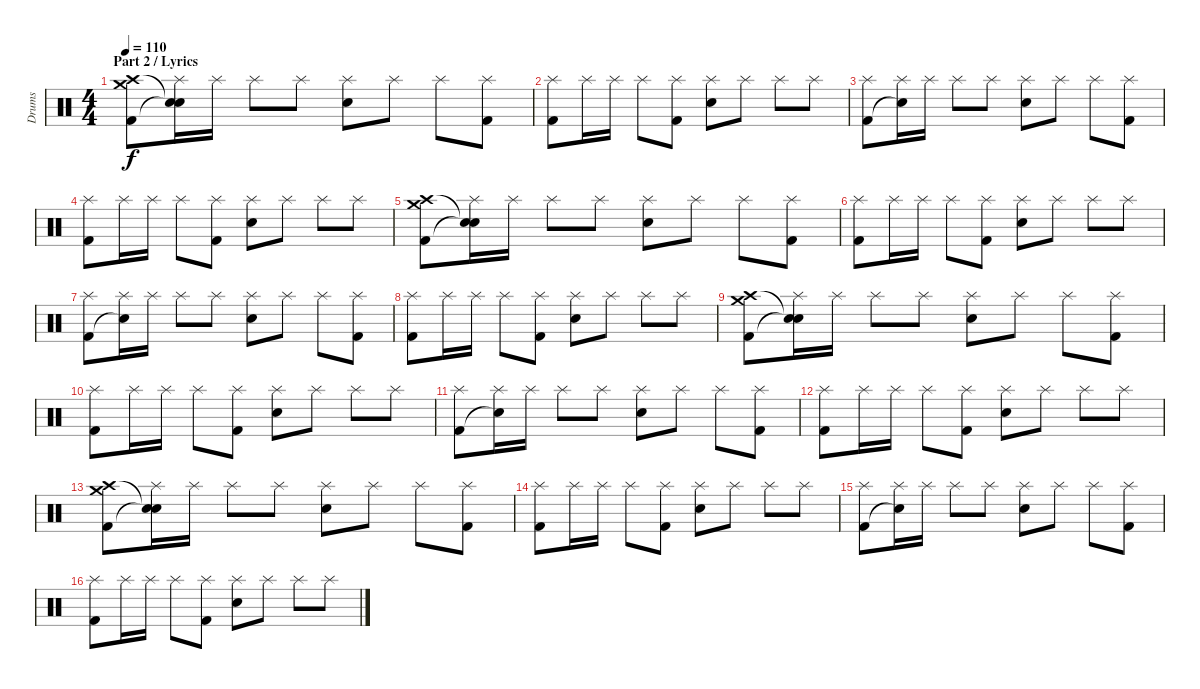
\track ("Drums" "Drums") {instrument percussion}
\staff {score}
\articulation defaults
\ts (4 4)
\section ("" "Part 2 / Lyrics")
\tempo 110
\clef neutral
\ks c
("Crash medium (hit)" "Crash high (hit)" "Kick (hit) 2").8{dy f} ("Splash (hit)" "Snare (hit)"{t} "Snare (hit)"{t}).16 "Splash (hit)".16 "Splash (hit)".8 "Splash (hit)".8 ("Splash (hit)" "Snare (hit) 2").8 "Splash (hit)".8 "Splash (hit)".8 ("Splash (hit)" "Kick (hit) 2").8 |
("Splash (hit)" "Kick (hit) 2").8 "Splash (hit)".16 "Splash (hit)".16 "Splash (hit)".8 ("Splash (hit)" "Kick (hit) 2").8 ("Splash (hit)" "Snare (hit) 2").8 "Splash (hit)".8 "Splash (hit)".8 "Splash (hit)".8 |
("Splash (hit)" "Kick (hit) 2").8 ("Splash (hit)" "Snare (hit)"{t}).16 "Splash (hit)".16 "Splash (hit)".8 "Splash (hit)".8 ("Splash (hit)" "Snare (hit) 2").8 "Splash (hit)".8 "Splash (hit)".8 ("Splash (hit)" "Kick (hit) 2").8 |
("Splash (hit)" "Kick (hit) 2").8 "Splash (hit)".16 "Splash (hit)".16 "Splash (hit)".8 ("Splash (hit)" "Kick (hit) 2").8 ("Splash (hit)" "Snare (hit) 2").8 "Splash (hit)".8 "Splash (hit)".8 "Splash (hit)".8 |
("Crash medium (hit)" "Crash high (hit)" "Kick (hit) 2").8 ("Splash (hit)" "Snare (hit)"{t} "Snare (hit)"{t}).16 "Splash (hit)".16 "Splash (hit)".8 "Splash (hit)".8 ("Splash (hit)" "Snare (hit) 2").8 "Splash (hit)".8 "Splash (hit)".8 ("Splash (hit)" "Kick (hit) 2").8 |
("Splash (hit)" "Kick (hit) 2").8 "Splash (hit)".16 "Splash (hit)".16 "Splash (hit)".8 ("Splash (hit)" "Kick (hit) 2").8 ("Splash (hit)" "Snare (hit) 2").8 "Splash (hit)".8 "Splash (hit)".8 "Splash (hit)".8 |
("Splash (hit)" "Kick (hit) 2").8 ("Splash (hit)" "Snare (hit)"{t}).16 "Splash (hit)".16 "Splash (hit)".8 "Splash (hit)".8 ("Splash (hit)" "Snare (hit) 2").8 "Splash (hit)".8 "Splash (hit)".8 ("Splash (hit)" "Kick (hit) 2").8 |
("Splash (hit)" "Kick (hit) 2").8 "Splash (hit)".16 "Splash (hit)".16 "Splash (hit)".8 ("Splash (hit)" "Kick (hit) 2").8 ("Splash (hit)" "Snare (hit) 2").8 "Splash (hit)".8 "Splash (hit)".8 "Splash (hit)".8 |
("Crash medium (hit)" "Crash high (hit)" "Kick (hit) 2").8 ("Splash (hit)" "Snare (hit)"{t} "Snare (hit)"{t}).16 "Splash (hit)".16 "Splash (hit)".8 "Splash (hit)".8 ("Splash (hit)" "Snare (hit) 2").8 "Splash (hit)".8 "Splash (hit)".8 ("Splash (hit)" "Kick (hit) 2").8 |
("Splash (hit)" "Kick (hit) 2").8 "Splash (hit)".16 "Splash (hit)".16 "Splash (hit)".8 ("Splash (hit)" "Kick (hit) 2").8 ("Splash (hit)" "Snare (hit) 2").8 "Splash (hit)".8 "Splash (hit)".8 "Splash (hit)".8 |
("Splash (hit)" "Kick (hit) 2").8 ("Splash (hit)" "Snare (hit)"{t}).16 "Splash (hit)".16 "Splash (hit)".8 "Splash (hit)".8 ("Splash (hit)" "Snare (hit) 2").8 "Splash (hit)".8 "Splash (hit)".8 ("Splash (hit)" "Kick (hit) 2").8 |
("Splash (hit)" "Kick (hit) 2").8 "Splash (hit)".16 "Splash (hit)".16 "Splash (hit)".8 ("Splash (hit)" "Kick (hit) 2").8 ("Splash (hit)" "Snare (hit) 2").8 "Splash (hit)".8 "Splash (hit)".8 "Splash (hit)".8 |
("Crash medium (hit)" "Crash high (hit)" "Kick (hit) 2").8 ("Splash (hit)" "Snare (hit)"{t} "Snare (hit)"{t}).16 "Splash (hit)".16 "Splash (hit)".8 "Splash (hit)".8 ("Splash (hit)" "Snare (hit) 2").8 "Splash (hit)".8 "Splash (hit)".8 ("Splash (hit)" "Kick (hit) 2").8 |
("Splash (hit)" "Kick (hit) 2").8 "Splash (hit)".16 "Splash (hit)".16 "Splash (hit)".8 ("Splash (hit)" "Kick (hit) 2").8 ("Splash (hit)" "Snare (hit) 2").8 "Splash (hit)".8 "Splash (hit)".8 "Splash (hit)".8 |
("Splash (hit)" "Kick (hit) 2").8 ("Splash (hit)" "Snare (hit)"{t}).16 "Splash (hit)".16 "Splash (hit)".8 "Splash (hit)".8 ("Splash (hit)" "Snare (hit) 2").8 "Splash (hit)".8 "Splash (hit)".8 ("Splash (hit)" "Kick (hit) 2").8 |
("Splash (hit)" "Kick (hit) 2").8 "Splash (hit)".16 "Splash (hit)".16 "Splash (hit)".8 ("Splash (hit)" "Kick (hit) 2").8 ("Splash (hit)" "Snare (hit) 2").8 "Splash (hit)".8 "Splash (hit)".8 "Splash (hit)".8
